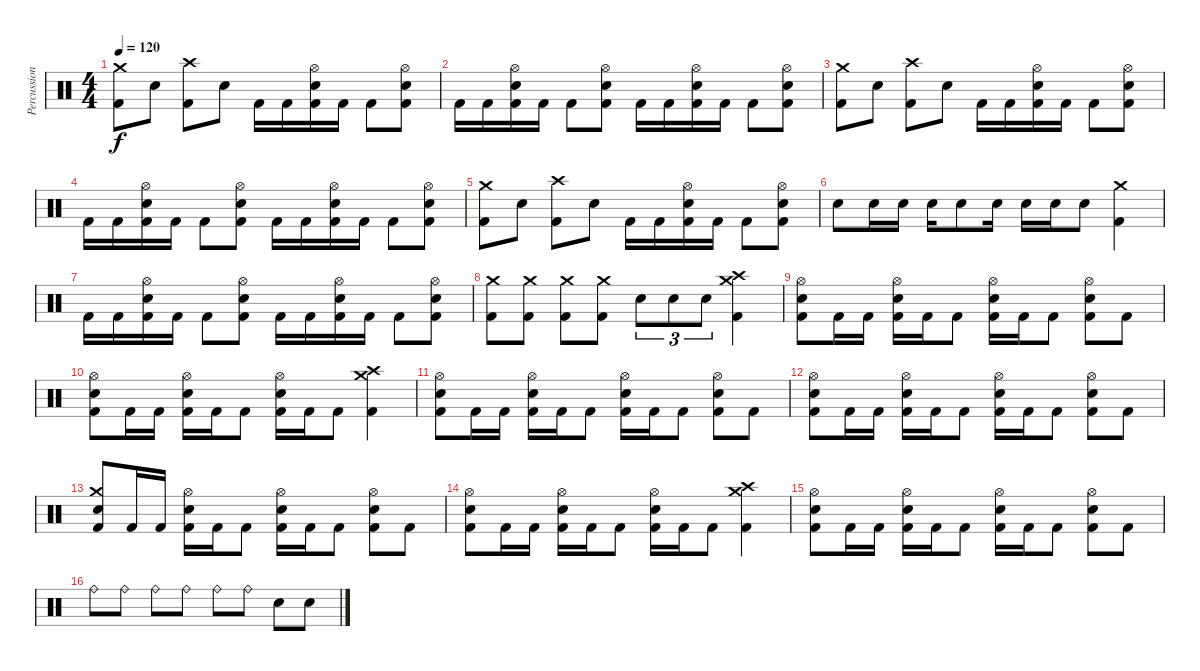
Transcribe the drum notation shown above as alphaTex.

\track ("Percussion" "Percussion") {instrument percussion}
\staff {score}
\articulation defaults
\ts (4 4)
\tempo 120
\clef neutral
\ks c
("Kick (hit) 2" "Crash medium (hit)").8{dy f} "Snare (hit) 2".8 ("Kick (hit) 2" "Crash high (hit)").8 "Snare (hit) 2".8 "Kick (hit) 2".16 "Kick (hit) 2".16 ("Snare (hit) 2" "Hi-Hat (open)" "Kick (hit) 2").16 "Kick (hit) 2".16 "Kick (hit) 2".8 ("Snare (hit) 2" "Hi-Hat (open)" "Kick (hit) 2").8 |
"Kick (hit) 2".16 "Kick (hit) 2".16 ("Hi-Hat (open)" "Snare (hit) 2" "Kick (hit) 2").16 "Kick (hit) 2".16 "Kick (hit) 2".8 ("Hi-Hat (open)" "Snare (hit) 2" "Kick (hit) 2").8 "Kick (hit) 2".16 "Kick (hit) 2".16 ("Hi-Hat (open)" "Snare (hit) 2" "Kick (hit) 2").16 "Kick (hit) 2".16 "Kick (hit) 2".8 ("Hi-Hat (open)" "Snare (hit) 2" "Kick (hit) 2").8 |
("Kick (hit) 2" "Crash medium (hit)").8 "Snare (hit) 2".8 ("Kick (hit) 2" "Crash high (hit)").8 "Snare (hit) 2".8 "Kick (hit) 2".16 "Kick (hit) 2".16 ("Snare (hit) 2" "Hi-Hat (open)" "Kick (hit) 2").16 "Kick (hit) 2".16 "Kick (hit) 2".8 ("Snare (hit) 2" "Hi-Hat (open)" "Kick (hit) 2").8 |
"Kick (hit) 2".16 "Kick (hit) 2".16 ("Hi-Hat (open)" "Snare (hit) 2" "Kick (hit) 2").16 "Kick (hit) 2".16 "Kick (hit) 2".8 ("Hi-Hat (open)" "Snare (hit) 2" "Kick (hit) 2").8 "Kick (hit) 2".16 "Kick (hit) 2".16 ("Hi-Hat (open)" "Snare (hit) 2" "Kick (hit) 2").16 "Kick (hit) 2".16 "Kick (hit) 2".8 ("Hi-Hat (open)" "Snare (hit) 2" "Kick (hit) 2").8 |
("Kick (hit) 2" "Crash medium (hit)").8 "Snare (hit) 2".8 ("Kick (hit) 2" "Crash high (hit)").8 "Snare (hit) 2".8 "Kick (hit) 2".16 "Kick (hit) 2".16 ("Snare (hit) 2" "Hi-Hat (open)" "Kick (hit) 2").16 "Kick (hit) 2".16 "Kick (hit) 2".8 ("Snare (hit) 2" "Hi-Hat (open)" "Kick (hit) 2").8 |
"Snare (hit) 2".8 "Snare (hit) 2".16 "Snare (hit) 2".16 "Snare (hit) 2".16 "Snare (hit) 2".8 "Snare (hit) 2".16 "Snare (hit) 2".16 "Snare (hit) 2".16 "Snare (hit) 2".8 ("Kick (hit) 2" "Crash medium (hit)").4 |
"Kick (hit) 2".16 "Kick (hit) 2".16 ("Hi-Hat (open)" "Snare (hit) 2" "Kick (hit) 2").16 "Kick (hit) 2".16 "Kick (hit) 2".8 ("Hi-Hat (open)" "Snare (hit) 2" "Kick (hit) 2").8 "Kick (hit) 2".16 "Kick (hit) 2".16 ("Hi-Hat (open)" "Snare (hit) 2" "Kick (hit) 2").16 "Kick (hit) 2".16 "Kick (hit) 2".8 ("Hi-Hat (open)" "Snare (hit) 2" "Kick (hit) 2").8 |
("Kick (hit) 2" "Crash medium (hit)").8 ("Kick (hit) 2" "Crash medium (hit)").8 ("Kick (hit) 2" "Crash medium (hit)").8 ("Kick (hit) 2" "Crash medium (hit)").8 "Snare (hit) 2".8{tu (3 2)} "Snare (hit) 2".8{tu (3 2)} "Snare (hit) 2".8{tu (3 2)} ("Kick (hit) 2" "Crash high (hit)" "Crash medium (hit)").4 |
("Kick (hit) 2" "Snare (hit) 2" "Hi-Hat (open)").8 "Kick (hit) 2".16 "Kick (hit) 2".16 ("Kick (hit) 2" "Snare (hit) 2" "Hi-Hat (open)").16 "Kick (hit) 2".16 "Kick (hit) 2".8 ("Kick (hit) 2" "Snare (hit) 2" "Hi-Hat (open)").16 "Kick (hit) 2".16 "Kick (hit) 2".8 ("Kick (hit) 2" "Snare (hit) 2" "Hi-Hat (open)").8 "Kick (hit) 2".8 |
("Kick (hit) 2" "Snare (hit) 2" "Hi-Hat (open)").8 "Kick (hit) 2".16 "Kick (hit) 2".16 ("Kick (hit) 2" "Snare (hit) 2" "Hi-Hat (open)").16 "Kick (hit) 2".16 "Kick (hit) 2".8 ("Kick (hit) 2" "Snare (hit) 2" "Hi-Hat (open)").16 "Kick (hit) 2".16 "Kick (hit) 2".8 ("Kick (hit) 2" "Crash high (hit)" "Crash medium (hit)").4 |
("Kick (hit) 2" "Snare (hit) 2" "Hi-Hat (open)").8 "Kick (hit) 2".16 "Kick (hit) 2".16 ("Kick (hit) 2" "Snare (hit) 2" "Hi-Hat (open)").16 "Kick (hit) 2".16 "Kick (hit) 2".8 ("Kick (hit) 2" "Snare (hit) 2" "Hi-Hat (open)").16 "Kick (hit) 2".16 "Kick (hit) 2".8 ("Kick (hit) 2" "Snare (hit) 2" "Hi-Hat (open)").8 "Kick (hit) 2".8 |
("Kick (hit) 2" "Snare (hit) 2" "Hi-Hat (open)").8 "Kick (hit) 2".16 "Kick (hit) 2".16 ("Kick (hit) 2" "Snare (hit) 2" "Hi-Hat (open)").16 "Kick (hit) 2".16 "Kick (hit) 2".8 ("Kick (hit) 2" "Snare (hit) 2" "Hi-Hat (open)").16 "Kick (hit) 2".16 "Kick (hit) 2".8 ("Kick (hit) 2" "Snare (hit) 2" "Hi-Hat (open)").8 "Kick (hit) 2".8 |
("Kick (hit) 2" "Snare (hit) 2" "Crash medium (hit)").8 "Kick (hit) 2".16 "Kick (hit) 2".16 ("Kick (hit) 2" "Snare (hit) 2" "Hi-Hat (open)").16 "Kick (hit) 2".16 "Kick (hit) 2".8 ("Kick (hit) 2" "Snare (hit) 2" "Hi-Hat (open)").16 "Kick (hit) 2".16 "Kick (hit) 2".8 ("Kick (hit) 2" "Snare (hit) 2" "Hi-Hat (open)").8 "Kick (hit) 2".8 |
("Kick (hit) 2" "Snare (hit) 2" "Hi-Hat (open)").8 "Kick (hit) 2".16 "Kick (hit) 2".16 ("Kick (hit) 2" "Snare (hit) 2" "Hi-Hat (open)").16 "Kick (hit) 2".16 "Kick (hit) 2".8 ("Kick (hit) 2" "Snare (hit) 2" "Hi-Hat (open)").16 "Kick (hit) 2".16 "Kick (hit) 2".8 ("Kick (hit) 2" "Crash high (hit)" "Crash medium (hit)").4 |
("Kick (hit) 2" "Snare (hit) 2" "Hi-Hat (open)").8 "Kick (hit) 2".16 "Kick (hit) 2".16 ("Kick (hit) 2" "Snare (hit) 2" "Hi-Hat (open)").16 "Kick (hit) 2".16 "Kick (hit) 2".8 ("Kick (hit) 2" "Snare (hit) 2" "Hi-Hat (open)").16 "Kick (hit) 2".16 "Kick (hit) 2".8 ("Kick (hit) 2" "Snare (hit) 2" "Hi-Hat (open)").8 "Kick (hit) 2".8 |
"Ride (bell)".8 "Ride (bell)".8 "Ride (bell)".8 "Ride (bell)".8 "Ride (bell)".8 "Ride (bell)".8 "Snare (hit) 2".8 "Snare (hit) 2".8
